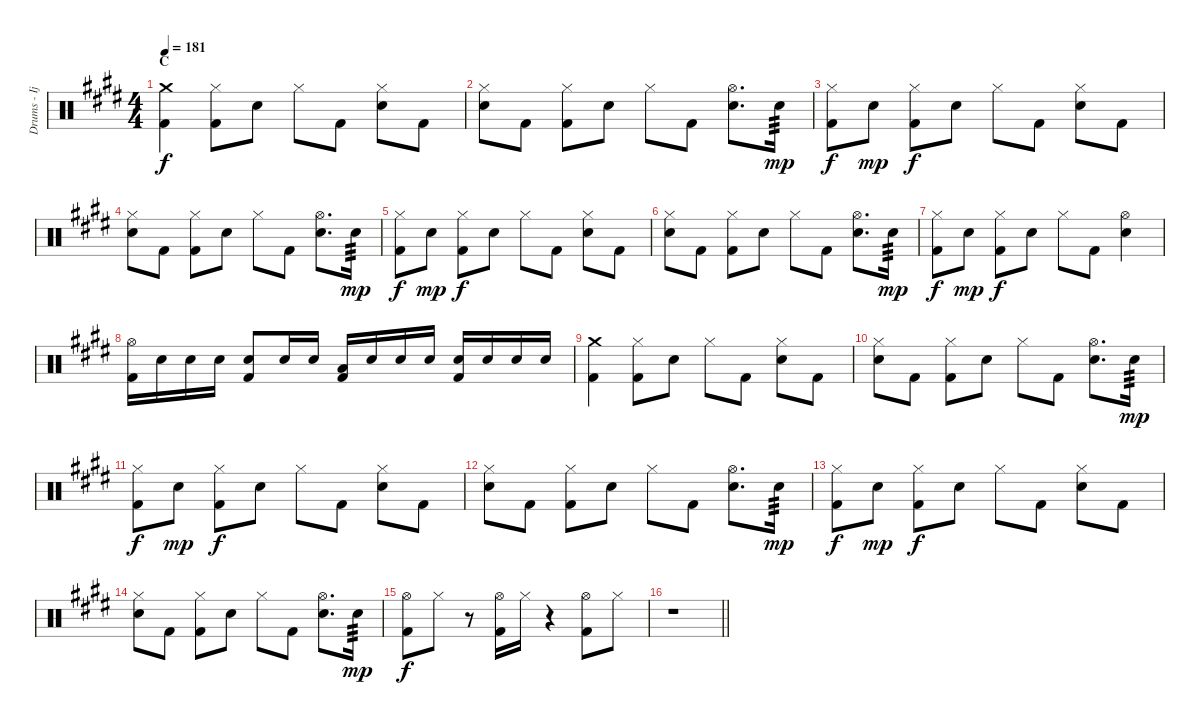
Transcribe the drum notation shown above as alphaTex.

\track ("Drums - Ijichi" "Drums - Ij") {instrument percussion}
\staff {score}
\articulation defaults
\ts (4 4)
\section ("" "C")
\tempo 181
\clef neutral
\ks e
("Crash medium (hit)" "Kick (hit) 2").4{dy f} ("Hi-Hat (closed)" "Kick (hit) 2").8 "Electric Snare (hit)".8 "Hi-Hat (closed)".8 "Kick (hit) 2".8 ("Hi-Hat (closed)" "Electric Snare (hit)").8 "Kick (hit) 2".8 |
("Hi-Hat (closed)" "Electric Snare (hit)").8 "Kick (hit) 2".8 ("Hi-Hat (closed)" "Kick (hit) 2").8 "Electric Snare (hit)".8 "Hi-Hat (closed)".8 "Kick (hit) 2".8 ("Hi-Hat (open)" "Electric Snare (hit)").8{d} "Electric Snare (hit)".16{tp 3 dy mp} |
("Hi-Hat (closed)" "Kick (hit) 2").8{dy f} "Electric Snare (hit)".8{dy mp} ("Hi-Hat (closed)" "Kick (hit) 2").8{dy f} "Electric Snare (hit)".8 "Hi-Hat (closed)".8 "Kick (hit) 2".8 ("Hi-Hat (closed)" "Electric Snare (hit)").8 "Kick (hit) 2".8 |
("Hi-Hat (closed)" "Electric Snare (hit)").8 "Kick (hit) 2".8 ("Hi-Hat (closed)" "Kick (hit) 2").8 "Electric Snare (hit)".8 "Hi-Hat (closed)".8 "Kick (hit) 2".8 ("Hi-Hat (open)" "Electric Snare (hit)").8{d} "Electric Snare (hit)".16{tp 3 dy mp} |
("Hi-Hat (closed)" "Kick (hit) 2").8{dy f} "Electric Snare (hit)".8{dy mp} ("Hi-Hat (closed)" "Kick (hit) 2").8{dy f} "Electric Snare (hit)".8 "Hi-Hat (closed)".8 "Kick (hit) 2".8 ("Hi-Hat (closed)" "Electric Snare (hit)").8 "Kick (hit) 2".8 |
("Hi-Hat (closed)" "Electric Snare (hit)").8 "Kick (hit) 2".8 ("Hi-Hat (closed)" "Kick (hit) 2").8 "Electric Snare (hit)".8 "Hi-Hat (closed)".8 "Kick (hit) 2".8 ("Hi-Hat (open)" "Electric Snare (hit)").8{d} "Electric Snare (hit)".16{tp 3 dy mp} |
("Hi-Hat (closed)" "Kick (hit) 2").8{dy f} "Electric Snare (hit)".8{dy mp} ("Hi-Hat (closed)" "Kick (hit) 2").8{dy f} "Electric Snare (hit)".8 "Hi-Hat (closed)".8 "Kick (hit) 2".8 ("Hi-Hat (open)" "Electric Snare (hit)").4 |
("Hi-Hat (open)" "Kick (hit) 2").16 "Electric Snare (hit)".16 "Electric Snare (hit)".16 "Electric Snare (hit)".16 ("Electric Snare (hit)" "Kick (hit) 2").8 "Electric Snare (hit)".16 "Electric Snare (hit)".16 ("Low Tom (hit)" "Kick (hit) 2").16 "Electric Snare (hit)".16 "Electric Snare (hit)".16 "Electric Snare (hit)".16 ("Electric Snare (hit)" "Kick (hit) 2").16 "Electric Snare (hit)".16 "Electric Snare (hit)".16 "Electric Snare (hit)".16 |
("Crash medium (hit)" "Kick (hit) 2").4 ("Hi-Hat (closed)" "Kick (hit) 2").8 "Electric Snare (hit)".8 "Hi-Hat (closed)".8 "Kick (hit) 2".8 ("Hi-Hat (closed)" "Electric Snare (hit)").8 "Kick (hit) 2".8 |
("Hi-Hat (closed)" "Electric Snare (hit)").8 "Kick (hit) 2".8 ("Hi-Hat (closed)" "Kick (hit) 2").8 "Electric Snare (hit)".8 "Hi-Hat (closed)".8 "Kick (hit) 2".8 ("Hi-Hat (open)" "Electric Snare (hit)").8{d} "Electric Snare (hit)".16{tp 3 dy mp} |
("Hi-Hat (closed)" "Kick (hit) 2").8{dy f} "Electric Snare (hit)".8{dy mp} ("Hi-Hat (closed)" "Kick (hit) 2").8{dy f} "Electric Snare (hit)".8 "Hi-Hat (closed)".8 "Kick (hit) 2".8 ("Hi-Hat (closed)" "Electric Snare (hit)").8 "Kick (hit) 2".8 |
("Hi-Hat (closed)" "Electric Snare (hit)").8 "Kick (hit) 2".8 ("Hi-Hat (closed)" "Kick (hit) 2").8 "Electric Snare (hit)".8 "Hi-Hat (closed)".8 "Kick (hit) 2".8 ("Hi-Hat (open)" "Electric Snare (hit)").8{d} "Electric Snare (hit)".16{tp 3 dy mp} |
("Hi-Hat (closed)" "Kick (hit) 2").8{dy f} "Electric Snare (hit)".8{dy mp} ("Hi-Hat (closed)" "Kick (hit) 2").8{dy f} "Electric Snare (hit)".8 "Hi-Hat (closed)".8 "Kick (hit) 2".8 ("Hi-Hat (closed)" "Electric Snare (hit)").8 "Kick (hit) 2".8 |
("Hi-Hat (closed)" "Electric Snare (hit)").8 "Kick (hit) 2".8 ("Hi-Hat (closed)" "Kick (hit) 2").8 "Electric Snare (hit)".8 "Hi-Hat (closed)".8 "Kick (hit) 2".8 ("Hi-Hat (open)" "Electric Snare (hit)").8{d} "Electric Snare (hit)".16{tp 3 dy mp} |
("Hi-Hat (open)" "Kick (hit) 2").8{dy f} "Hi-Hat (closed)".8 r.8 ("Hi-Hat (open)" "Kick (hit) 2").16 "Hi-Hat (closed)".16 r.4 ("Hi-Hat (open)" "Kick (hit) 2").8 "Hi-Hat (closed)".8 |
\barLineRight lightlight
r.1
